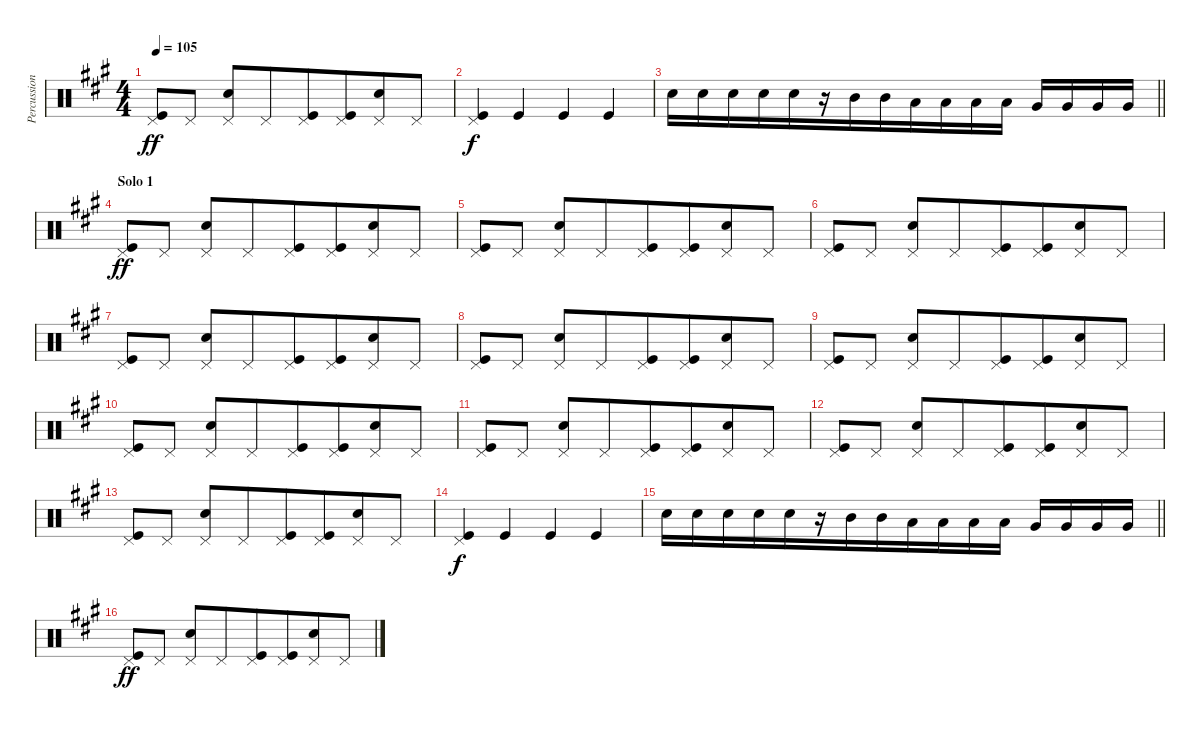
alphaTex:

\track ("Percussion" "Percussion") {instrument percussion}
\staff {score}
\articulation defaults
\ts (4 4)
\tempo 105
\clef neutral
\ks a
("Kick (hit)" "Pedal Hi-Hat (hit)").8{dy ff beam merge} "Pedal Hi-Hat (hit)".8 ("Electric Snare (hit)" "Pedal Hi-Hat (hit)").8 "Pedal Hi-Hat (hit)".8{beam merge} ("Kick (hit)" "Pedal Hi-Hat (hit)").8{beam merge} ("Kick (hit)" "Pedal Hi-Hat (hit)").8{beam merge} ("Electric Snare (hit)" "Pedal Hi-Hat (hit)").8{beam merge} "Pedal Hi-Hat (hit)".8 |
("Kick (hit)" "Pedal Hi-Hat (hit)").4{dy f beam merge} "Kick (hit)".4 "Kick (hit)".4{beam merge} "Kick (hit)".4 |
\barLineRight lightlight "Electric Snare (hit)".16{beam merge} "Electric Snare (hit)".16 "Electric Snare (hit)".16 "Electric Snare (hit)".16{beam merge} "Electric Snare (hit)".16{beam merge}
r.16{beam merge} "Mid Tom (hit)".16 "Mid Tom (hit)".16{beam merge} "Low Tom (hit)".16{beam merge} "Low Tom (hit)".16 "Low Tom (hit)".16 "Low Tom (hit)".16 "Very Low Tom (hit)".16 "Very Low Tom (hit)".16 "Very Low Tom (hit)".16 "Very Low Tom (hit)".16 |
\section ("" "Solo 1")
("Kick (hit)" "Pedal Hi-Hat (hit)").8{dy ff beam merge} "Pedal Hi-Hat (hit)".8 ("Electric Snare (hit)" "Pedal Hi-Hat (hit)").8 "Pedal Hi-Hat (hit)".8{beam merge} ("Kick (hit)" "Pedal Hi-Hat (hit)").8{beam merge} ("Kick (hit)" "Pedal Hi-Hat (hit)").8{beam merge} ("Electric Snare (hit)" "Pedal Hi-Hat (hit)").8{beam merge} "Pedal Hi-Hat (hit)".8 |
("Kick (hit)" "Pedal Hi-Hat (hit)").8{beam merge} "Pedal Hi-Hat (hit)".8 ("Electric Snare (hit)" "Pedal Hi-Hat (hit)").8 "Pedal Hi-Hat (hit)".8{beam merge} ("Kick (hit)" "Pedal Hi-Hat (hit)").8{beam merge} ("Kick (hit)" "Pedal Hi-Hat (hit)").8{beam merge} ("Electric Snare (hit)" "Pedal Hi-Hat (hit)").8{beam merge} "Pedal Hi-Hat (hit)".8 |
("Kick (hit)" "Pedal Hi-Hat (hit)").8{beam merge} "Pedal Hi-Hat (hit)".8 ("Electric Snare (hit)" "Pedal Hi-Hat (hit)").8 "Pedal Hi-Hat (hit)".8{beam merge} ("Kick (hit)" "Pedal Hi-Hat (hit)").8{beam merge} ("Kick (hit)" "Pedal Hi-Hat (hit)").8{beam merge} ("Electric Snare (hit)" "Pedal Hi-Hat (hit)").8{beam merge} "Pedal Hi-Hat (hit)".8 |
("Kick (hit)" "Pedal Hi-Hat (hit)").8{beam merge} "Pedal Hi-Hat (hit)".8 ("Electric Snare (hit)" "Pedal Hi-Hat (hit)").8 "Pedal Hi-Hat (hit)".8{beam merge} ("Kick (hit)" "Pedal Hi-Hat (hit)").8{beam merge} ("Kick (hit)" "Pedal Hi-Hat (hit)").8{beam merge} ("Electric Snare (hit)" "Pedal Hi-Hat (hit)").8{beam merge} "Pedal Hi-Hat (hit)".8 |
("Kick (hit)" "Pedal Hi-Hat (hit)").8{beam merge} "Pedal Hi-Hat (hit)".8 ("Electric Snare (hit)" "Pedal Hi-Hat (hit)").8 "Pedal Hi-Hat (hit)".8{beam merge} ("Kick (hit)" "Pedal Hi-Hat (hit)").8{beam merge} ("Kick (hit)" "Pedal Hi-Hat (hit)").8{beam merge} ("Electric Snare (hit)" "Pedal Hi-Hat (hit)").8{beam merge} "Pedal Hi-Hat (hit)".8 |
("Kick (hit)" "Pedal Hi-Hat (hit)").8{beam merge} "Pedal Hi-Hat (hit)".8 ("Electric Snare (hit)" "Pedal Hi-Hat (hit)").8 "Pedal Hi-Hat (hit)".8{beam merge} ("Kick (hit)" "Pedal Hi-Hat (hit)").8{beam merge} ("Kick (hit)" "Pedal Hi-Hat (hit)").8{beam merge} ("Electric Snare (hit)" "Pedal Hi-Hat (hit)").8{beam merge} "Pedal Hi-Hat (hit)".8 |
("Kick (hit)" "Pedal Hi-Hat (hit)").8{beam merge} "Pedal Hi-Hat (hit)".8 ("Electric Snare (hit)" "Pedal Hi-Hat (hit)").8 "Pedal Hi-Hat (hit)".8{beam merge} ("Kick (hit)" "Pedal Hi-Hat (hit)").8{beam merge} ("Kick (hit)" "Pedal Hi-Hat (hit)").8{beam merge} ("Electric Snare (hit)" "Pedal Hi-Hat (hit)").8{beam merge} "Pedal Hi-Hat (hit)".8 |
("Kick (hit)" "Pedal Hi-Hat (hit)").8{beam merge} "Pedal Hi-Hat (hit)".8 ("Electric Snare (hit)" "Pedal Hi-Hat (hit)").8 "Pedal Hi-Hat (hit)".8{beam merge} ("Kick (hit)" "Pedal Hi-Hat (hit)").8{beam merge} ("Kick (hit)" "Pedal Hi-Hat (hit)").8{beam merge} ("Electric Snare (hit)" "Pedal Hi-Hat (hit)").8{beam merge} "Pedal Hi-Hat (hit)".8 |
("Kick (hit)" "Pedal Hi-Hat (hit)").8{beam merge} "Pedal Hi-Hat (hit)".8 ("Electric Snare (hit)" "Pedal Hi-Hat (hit)").8 "Pedal Hi-Hat (hit)".8{beam merge} ("Kick (hit)" "Pedal Hi-Hat (hit)").8{beam merge} ("Kick (hit)" "Pedal Hi-Hat (hit)").8{beam merge} ("Electric Snare (hit)" "Pedal Hi-Hat (hit)").8{beam merge} "Pedal Hi-Hat (hit)".8 |
("Kick (hit)" "Pedal Hi-Hat (hit)").8{beam merge} "Pedal Hi-Hat (hit)".8 ("Electric Snare (hit)" "Pedal Hi-Hat (hit)").8 "Pedal Hi-Hat (hit)".8{beam merge} ("Kick (hit)" "Pedal Hi-Hat (hit)").8{beam merge} ("Kick (hit)" "Pedal Hi-Hat (hit)").8{beam merge} ("Electric Snare (hit)" "Pedal Hi-Hat (hit)").8{beam merge} "Pedal Hi-Hat (hit)".8 |
("Kick (hit)" "Pedal Hi-Hat (hit)").4{dy f beam merge} "Kick (hit)".4 "Kick (hit)".4{beam merge} "Kick (hit)".4 |
\barLineRight lightlight "Electric Snare (hit)".16{beam merge} "Electric Snare (hit)".16 "Electric Snare (hit)".16 "Electric Snare (hit)".16{beam merge} "Electric Snare (hit)".16{beam merge}
r.16{beam merge} "Mid Tom (hit)".16 "Mid Tom (hit)".16{beam merge} "Low Tom (hit)".16{beam merge} "Low Tom (hit)".16 "Low Tom (hit)".16 "Low Tom (hit)".16 "Very Low Tom (hit)".16 "Very Low Tom (hit)".16 "Very Low Tom (hit)".16 "Very Low Tom (hit)".16 |
("Kick (hit)" "Pedal Hi-Hat (hit)").8{dy ff beam merge} "Pedal Hi-Hat (hit)".8 ("Electric Snare (hit)" "Pedal Hi-Hat (hit)").8 "Pedal Hi-Hat (hit)".8{beam merge} ("Kick (hit)" "Pedal Hi-Hat (hit)").8{beam merge} ("Kick (hit)" "Pedal Hi-Hat (hit)").8{beam merge} ("Electric Snare (hit)" "Pedal Hi-Hat (hit)").8{beam merge} "Pedal Hi-Hat (hit)".8
